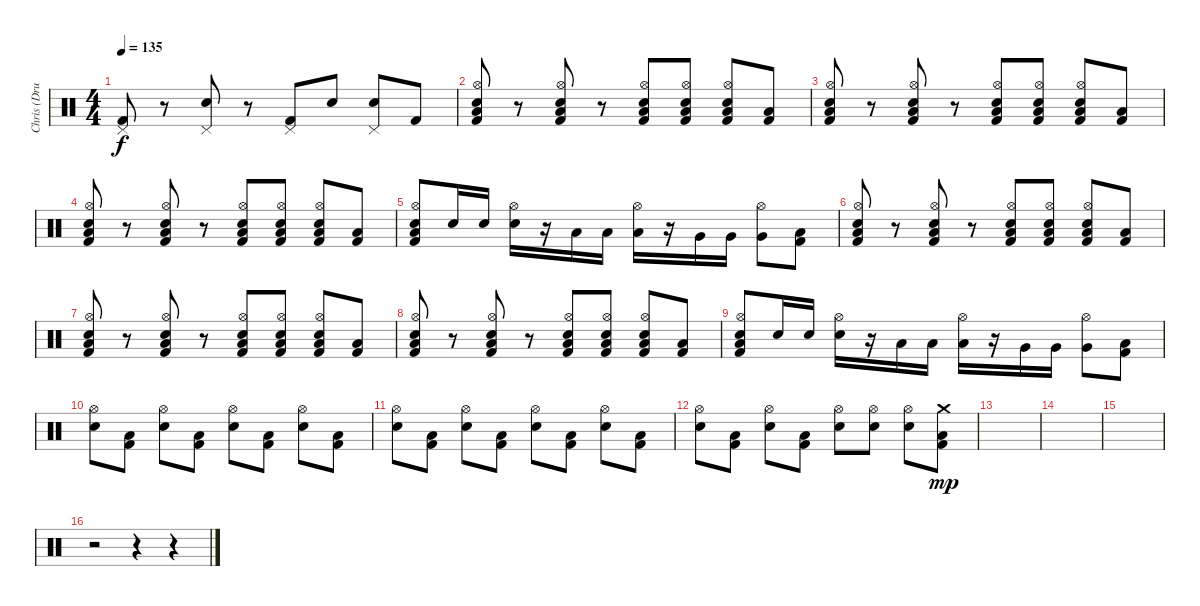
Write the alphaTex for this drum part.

\track ("Chris (Drums)" "Chris (Dru") {instrument percussion}
\staff {score}
\articulation defaults
\ts (4 4)
\tempo 135
\clef neutral
\ks c
("Pedal Hi-Hat (hit)" "Kick (hit) 2").8{dy f} r.8 ("Pedal Hi-Hat (hit)" "Snare (hit) 2").8 r.8 ("Pedal Hi-Hat (hit)" "Kick (hit) 2").8 "Snare (hit) 2".8 ("Pedal Hi-Hat (hit)" "Snare (hit) 2").8 "Kick (hit) 2".8 |
("Hi-Hat (open)" "Low Floor Tom (hit)" "Snare (hit) 2" "Kick (hit) 2").8 r.8 ("Hi-Hat (open)" "Low Floor Tom (hit)" "Snare (hit) 2" "Kick (hit) 2").8 r.8 ("Hi-Hat (open)" "Low Floor Tom (hit)" "Snare (hit) 2" "Kick (hit) 2").8 ("Hi-Hat (open)" "Low Floor Tom (hit)" "Snare (hit) 2" "Kick (hit) 2").8 ("Hi-Hat (open)" "Low Floor Tom (hit)" "Snare (hit) 2" "Kick (hit) 2").8 ("Low Floor Tom (hit)" "Kick (hit) 2").8 |
("Hi-Hat (open)" "Low Floor Tom (hit)" "Snare (hit) 2" "Kick (hit) 2").8 r.8 ("Hi-Hat (open)" "Low Floor Tom (hit)" "Snare (hit) 2" "Kick (hit) 2").8 r.8 ("Hi-Hat (open)" "Low Floor Tom (hit)" "Snare (hit) 2" "Kick (hit) 2").8 ("Hi-Hat (open)" "Low Floor Tom (hit)" "Snare (hit) 2" "Kick (hit) 2").8 ("Hi-Hat (open)" "Low Floor Tom (hit)" "Snare (hit) 2" "Kick (hit) 2").8 ("Low Floor Tom (hit)" "Kick (hit) 2").8 |
("Hi-Hat (open)" "Low Floor Tom (hit)" "Snare (hit) 2" "Kick (hit) 2").8 r.8 ("Hi-Hat (open)" "Low Floor Tom (hit)" "Snare (hit) 2" "Kick (hit) 2").8 r.8 ("Hi-Hat (open)" "Low Floor Tom (hit)" "Snare (hit) 2" "Kick (hit) 2").8 ("Hi-Hat (open)" "Low Floor Tom (hit)" "Snare (hit) 2" "Kick (hit) 2").8 ("Hi-Hat (open)" "Low Floor Tom (hit)" "Snare (hit) 2" "Kick (hit) 2").8 ("Low Floor Tom (hit)" "Kick (hit) 2").8 |
("Hi-Hat (open)" "Snare (hit) 2" "Low Floor Tom (hit)" "Kick (hit) 2").8 "Snare (hit) 2".16 "Snare (hit) 2".16 ("Hi-Hat (open)" "Snare (hit) 2").16 r.16 "Low Tom (hit)".16 "Low Tom (hit)".16 ("Hi-Hat (open)" "Low Tom (hit)").16 r.16 "Very Low Tom (hit)".16 "Very Low Tom (hit)".16 ("Hi-Hat (open)" "Very Low Tom (hit)").8 ("Low Floor Tom (hit)" "Kick (hit) 2").8 |
("Hi-Hat (open)" "Low Floor Tom (hit)" "Snare (hit) 2" "Kick (hit) 2").8 r.8 ("Hi-Hat (open)" "Low Floor Tom (hit)" "Snare (hit) 2" "Kick (hit) 2").8 r.8 ("Hi-Hat (open)" "Low Floor Tom (hit)" "Snare (hit) 2" "Kick (hit) 2").8 ("Hi-Hat (open)" "Low Floor Tom (hit)" "Snare (hit) 2" "Kick (hit) 2").8 ("Hi-Hat (open)" "Low Floor Tom (hit)" "Snare (hit) 2" "Kick (hit) 2").8 ("Low Floor Tom (hit)" "Kick (hit) 2").8 |
("Hi-Hat (open)" "Low Floor Tom (hit)" "Snare (hit) 2" "Kick (hit) 2").8 r.8 ("Hi-Hat (open)" "Low Floor Tom (hit)" "Snare (hit) 2" "Kick (hit) 2").8 r.8 ("Hi-Hat (open)" "Low Floor Tom (hit)" "Snare (hit) 2" "Kick (hit) 2").8 ("Hi-Hat (open)" "Low Floor Tom (hit)" "Snare (hit) 2" "Kick (hit) 2").8 ("Hi-Hat (open)" "Low Floor Tom (hit)" "Snare (hit) 2" "Kick (hit) 2").8 ("Low Floor Tom (hit)" "Kick (hit) 2").8 |
("Hi-Hat (open)" "Low Floor Tom (hit)" "Snare (hit) 2" "Kick (hit) 2").8 r.8 ("Hi-Hat (open)" "Low Floor Tom (hit)" "Snare (hit) 2" "Kick (hit) 2").8 r.8 ("Hi-Hat (open)" "Low Floor Tom (hit)" "Snare (hit) 2" "Kick (hit) 2").8 ("Hi-Hat (open)" "Low Floor Tom (hit)" "Snare (hit) 2" "Kick (hit) 2").8 ("Hi-Hat (open)" "Low Floor Tom (hit)" "Snare (hit) 2" "Kick (hit) 2").8 ("Low Floor Tom (hit)" "Kick (hit) 2").8 |
("Hi-Hat (open)" "Snare (hit) 2" "Low Floor Tom (hit)" "Kick (hit) 2").8 "Snare (hit) 2".16 "Snare (hit) 2".16 ("Hi-Hat (open)" "Snare (hit) 2").16 r.16 "Low Tom (hit)".16 "Low Tom (hit)".16 ("Hi-Hat (open)" "Low Tom (hit)").16 r.16 "Very Low Tom (hit)".16 "Very Low Tom (hit)".16 ("Hi-Hat (open)" "Very Low Tom (hit)").8 ("Low Floor Tom (hit)" "Kick (hit) 2").8 |
("Hi-Hat (open)" "Snare (hit) 2").8 ("Kick (hit) 2" "Low Floor Tom (hit)").8 ("Hi-Hat (open)" "Snare (hit) 2").8 ("Kick (hit) 2" "Low Floor Tom (hit)").8 ("Hi-Hat (open)" "Snare (hit) 2").8 ("Kick (hit) 2" "Low Floor Tom (hit)").8 ("Hi-Hat (open)" "Snare (hit) 2").8 ("Kick (hit) 2" "Low Floor Tom (hit)").8 |
("Hi-Hat (open)" "Snare (hit) 2").8 ("Kick (hit) 2" "Low Floor Tom (hit)").8 ("Hi-Hat (open)" "Snare (hit) 2").8 ("Kick (hit) 2" "Low Floor Tom (hit)").8 ("Hi-Hat (open)" "Snare (hit) 2").8 ("Kick (hit) 2" "Low Floor Tom (hit)").8 ("Hi-Hat (open)" "Snare (hit) 2").8 ("Kick (hit) 2" "Low Floor Tom (hit)").8 |
("Hi-Hat (open)" "Snare (hit) 2").8 ("Kick (hit) 2" "Low Floor Tom (hit)").8 ("Hi-Hat (open)" "Snare (hit) 2").8 ("Kick (hit) 2" "Low Floor Tom (hit)").8 ("Hi-Hat (open)" "Snare (hit) 2").8 ("Hi-Hat (open)" "Snare (hit) 2").8 ("Hi-Hat (open)" "Snare (hit) 2").8 ("Crash medium (hit)" "Kick (hit) 2" "Low Floor Tom (hit)").8{dy mp} |
|
|
|
r.2 r.4 r.4
